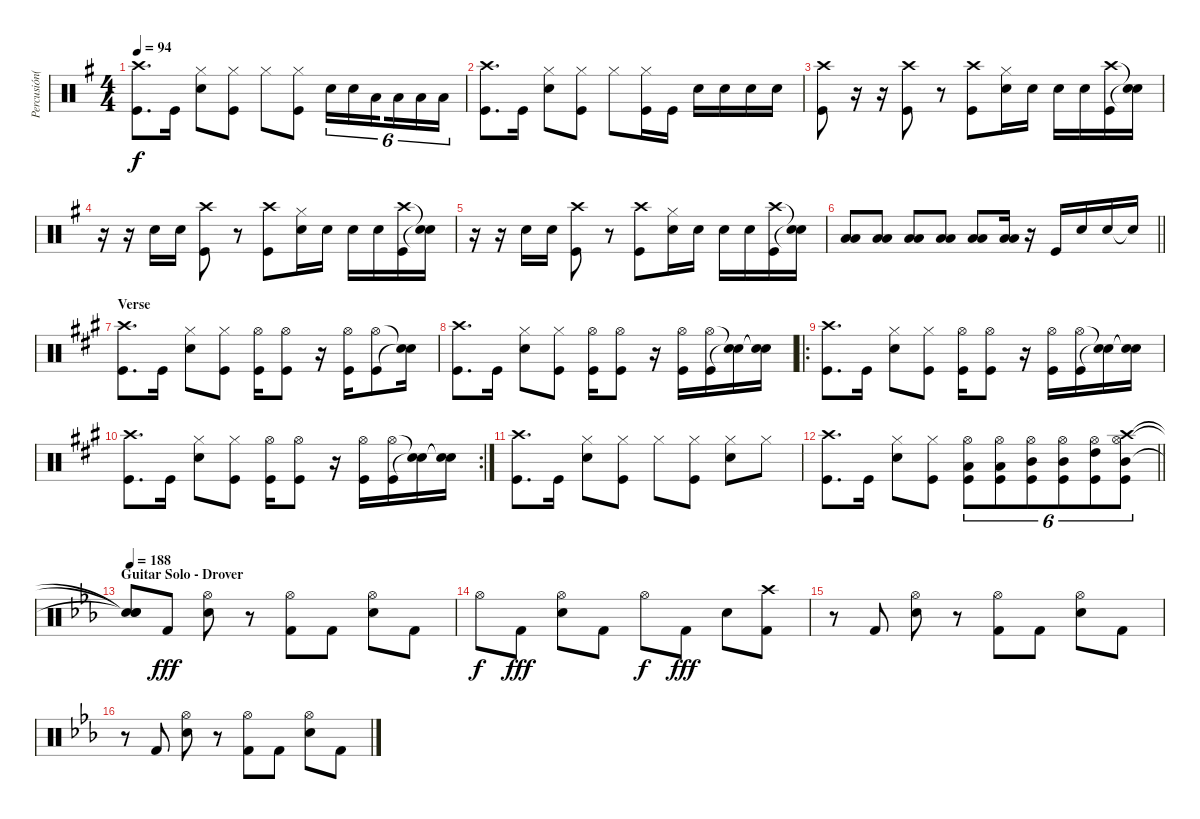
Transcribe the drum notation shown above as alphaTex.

\track ("Percusión(S.Drover)" "Percusión(") {instrument percussion}
\staff {score}
\articulation defaults
\ts (4 4)
\tempo 94
\clef neutral
\ks g
("Kick (hit)" "Crash high (hit)").8{d dy f} "Kick (hit)".16 ("Hi-Hat (closed)" "Snare (hit) 2").8 ("Kick (hit)" "Hi-Hat (closed)").8 "Hi-Hat (closed)".8 ("Kick (hit)" "Hi-Hat (closed)").8 "Snare (hit) 2".16{tu (6 4)} "Snare (hit) 2".16{tu (6 4)} "Low Tom (hit)".16{tu (6 4) beam splitsecondary} "Low Tom (hit)".16{tu (6 4)} "Low Tom (hit)".16{tu (6 4)} "Low Tom (hit)".16{tu (6 4)} |
("Kick (hit)" "Crash high (hit)").8{d} "Kick (hit)".16 ("Hi-Hat (closed)" "Snare (hit) 2").8 ("Kick (hit)" "Hi-Hat (closed)").8 "Hi-Hat (closed)".8 ("Kick (hit)" "Hi-Hat (closed)").16 "Kick (hit)".16 "Snare (hit) 2".16 "Snare (hit) 2".16 "Snare (hit) 2".16 "Snare (hit) 2".16 |
("Kick (hit)" "Crash high (hit)").8 r.16 r.16 ("Kick (hit)" "Crash high (hit)").8 r.8 ("Kick (hit)" "Crash high (hit)").8 ("Hi-Hat (closed)" "Snare (hit) 2").16 "Snare (hit) 2".16 "Snare (hit) 2".16 "Snare (hit) 2".16 ("Kick (hit)" "Crash high (hit)").16 ("Snare (hit)"{t} "Snare (hit)"{t}).16 |
r.16 r.16 "Snare (hit) 2".16 "Snare (hit) 2".16 ("Kick (hit)" "Crash high (hit)").8 r.8 ("Kick (hit)" "Crash high (hit)").8 ("Hi-Hat (closed)" "Snare (hit) 2").16 "Snare (hit) 2".16 "Snare (hit) 2".16 "Snare (hit) 2".16 ("Kick (hit)" "Crash high (hit)").16 ("Snare (hit)"{t} "Snare (hit)"{t}).16 |
r.16 r.16 "Snare (hit) 2".16 "Snare (hit) 2".16 ("Kick (hit)" "Crash high (hit)").8 r.8 ("Kick (hit)" "Crash high (hit)").8 ("Hi-Hat (closed)" "Snare (hit) 2").16 "Snare (hit) 2".16 "Snare (hit) 2".16 "Snare (hit) 2".16 ("Kick (hit)" "Crash high (hit)").16 ("Snare (hit)"{t} "Snare (hit)"{t}).16 |
\barLineRight lightlight
("Low Tom (hit)" "Low Tom (hit)").8 ("Low Tom (hit)" "Low Tom (hit)").8 ("Low Tom (hit)" "Low Tom (hit)").8 ("Low Tom (hit)" "Low Tom (hit)").8 ("Low Tom (hit)" "Low Tom (hit)").8 ("Low Tom (hit)" "Low Tom (hit)").16 r.16 "Kick (hit)".16 "Snare (hit) 2".16 "Snare (hit) 2".16 "Snare (hit)"{t}.16 |
\section ("" "Verse")
\ks a
("Kick (hit)" "Crash high (hit)").8{d} "Kick (hit)".16 ("Hi-Hat (closed)" "Snare (hit) 2").8 ("Kick (hit)" "Hi-Hat (closed)").8 ("Kick (hit)" "Hi-Hat (open)").16 ("Kick (hit)" "Hi-Hat (open)").8 r.16 ("Hi-Hat (open)" "Kick (hit)").16 ("Hi-Hat (open)" "Kick (hit)").8 ("Snare (hit)"{t} "Snare (hit)"{t}).16 |
("Kick (hit)" "Crash high (hit)").8{d} "Kick (hit)".16 ("Hi-Hat (closed)" "Snare (hit) 2").8 ("Kick (hit)" "Hi-Hat (closed)").8 ("Kick (hit)" "Hi-Hat (open)").16 ("Kick (hit)" "Hi-Hat (open)").8 r.16 ("Hi-Hat (open)" "Kick (hit)").16 ("Hi-Hat (open)" "Kick (hit)").16 ("Snare (hit)"{t} "Snare (hit)"{t}).16 ("Snare (hit)"{t} "Snare (hit)"{t}).16 |
\ro
("Kick (hit)" "Crash high (hit)").8{d} "Kick (hit)".16 ("Hi-Hat (closed)" "Snare (hit) 2").8 ("Kick (hit)" "Hi-Hat (closed)").8 ("Kick (hit)" "Hi-Hat (open)").16 ("Kick (hit)" "Hi-Hat (open)").8 r.16 ("Hi-Hat (open)" "Kick (hit)").16 ("Hi-Hat (open)" "Kick (hit)").16 ("Snare (hit)"{t} "Snare (hit)"{t}).16 ("Snare (hit)"{t} "Snare (hit)"{t}).16 |
\rc 2
("Kick (hit)" "Crash high (hit)").8{d} "Kick (hit)".16 ("Hi-Hat (closed)" "Snare (hit) 2").8 ("Kick (hit)" "Hi-Hat (closed)").8 ("Kick (hit)" "Hi-Hat (open)").16 ("Kick (hit)" "Hi-Hat (open)").8 r.16 ("Hi-Hat (open)" "Kick (hit)").16 ("Hi-Hat (open)" "Kick (hit)").16 ("Snare (hit)"{t} "Snare (hit)"{t}).16 ("Snare (hit)"{t} "Snare (hit)"{t}).16 |
("Kick (hit)" "Crash high (hit)").8{d} "Kick (hit)".16 ("Hi-Hat (closed)" "Snare (hit) 2").8 ("Kick (hit)" "Hi-Hat (closed)").8 "Hi-Hat (closed)".8 ("Kick (hit)" "Hi-Hat (closed)").8 ("Hi-Hat (closed)" "Snare (hit) 2").8 "Hi-Hat (closed)".8 |
\barLineRight lightlight
("Kick (hit)" "Crash high (hit)").8{d} "Kick (hit)".16 ("Hi-Hat (closed)" "Snare (hit) 2").8 ("Kick (hit)" "Hi-Hat (closed)").8 ("Hi-Hat (open)" "Low Tom (hit)" "Kick (hit)").8{tu (6 4)} ("Hi-Hat (open)" "Low Tom (hit)" "Kick (hit)").8{tu (6 4)} ("Hi-Hat (open)" "Mid Tom (hit)" "Kick (hit)").8{tu (6 4)} ("Hi-Hat (open)" "Mid Tom (hit)" "Kick (hit)").8{tu (6 4)} ("Hi-Hat (open)" "High Tom (hit)" "Kick (hit)").8{tu (6 4)} ("Crash high (hit)" "Hi-Hat (open)" "Mid Tom (hit)" "Kick (hit)").8{tu (6 4)} |
\section ("" "Guitar Solo - Drover")
\tempo 188
\ks eb
("Snare (hit)"{t} "Snare (hit)"{t} "Snare (hit)"{t}).8 "Kick (hit) 2".8{dy fff} ("Hi-Hat (open)" "Snare (hit) 2").8 r.8 ("Hi-Hat (open)" "Kick (hit) 2").8 "Kick (hit) 2".8 ("Hi-Hat (open)" "Snare (hit) 2").8 "Kick (hit) 2".8 |
"Hi-Hat (open)".8{dy f} "Kick (hit) 2".8{dy fff} ("Hi-Hat (open)" "Snare (hit) 2").8 "Kick (hit) 2".8 "Hi-Hat (open)".8{dy f} "Kick (hit) 2".8{dy fff} "Snare (hit) 2".8 ("Crash high (hit)" "Kick (hit) 2").8 |
r.8 "Kick (hit) 2".8 ("Hi-Hat (open)" "Snare (hit) 2").8 r.8 ("Hi-Hat (open)" "Kick (hit) 2").8 "Kick (hit) 2".8 ("Hi-Hat (open)" "Snare (hit) 2").8 "Kick (hit) 2".8 |
r.8 "Kick (hit) 2".8 ("Hi-Hat (open)" "Snare (hit) 2").8 r.8 ("Hi-Hat (open)" "Kick (hit) 2").8 "Kick (hit) 2".8 ("Hi-Hat (open)" "Snare (hit) 2").8 "Kick (hit) 2".8
